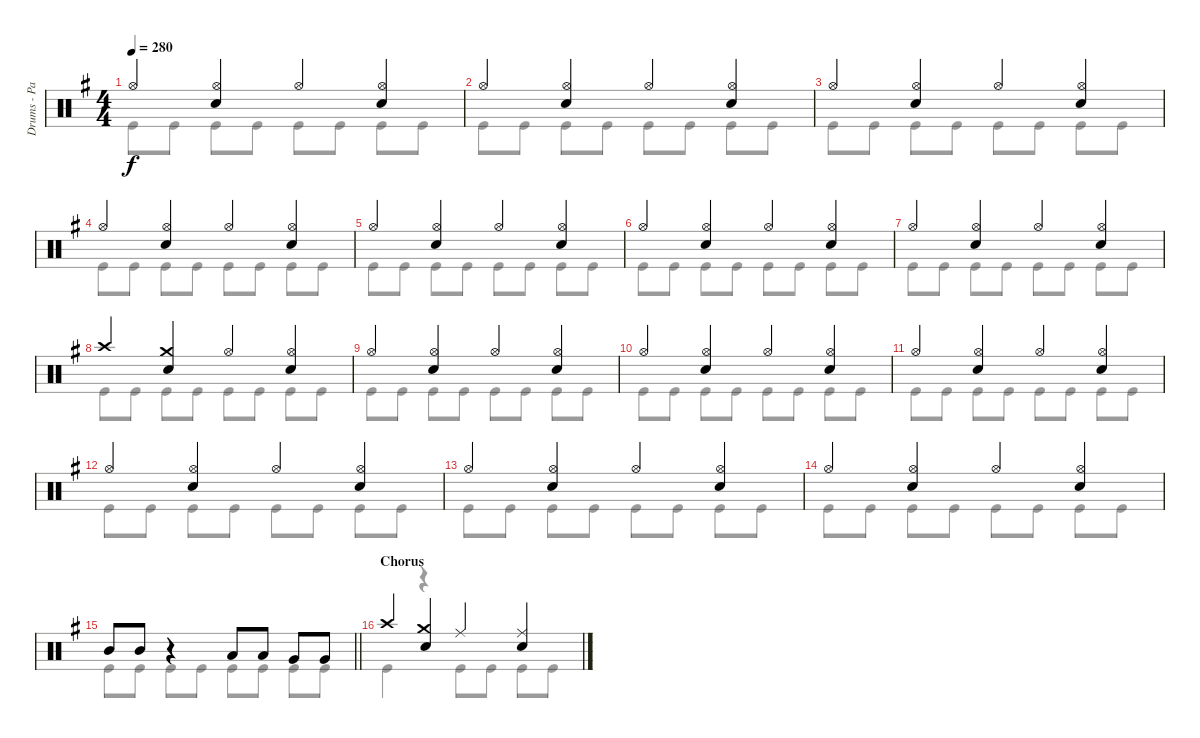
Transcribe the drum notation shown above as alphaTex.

\track ("Drums - Patrick Johansson" "Drums - Pa") {instrument percussion}
\staff {score}
\articulation defaults
\voice
\ts (4 4)
\tempo 280
\clef neutral
\ks eminor "Hi-Hat (open)".4{dy f}
("Hi-Hat (open)" "Snare (hit) 2").4 "Hi-Hat (open)".4 ("Hi-Hat (open)" "Snare (hit) 2").4 |
"Hi-Hat (open)".4 ("Hi-Hat (open)" "Snare (hit) 2").4 "Hi-Hat (open)".4 ("Hi-Hat (open)" "Snare (hit) 2").4 |
"Hi-Hat (open)".4 ("Hi-Hat (open)" "Snare (hit) 2").4 "Hi-Hat (open)".4 ("Hi-Hat (open)" "Snare (hit) 2").4 |
"Hi-Hat (open)".4 ("Hi-Hat (open)" "Snare (hit) 2").4 "Hi-Hat (open)".4 ("Hi-Hat (open)" "Snare (hit) 2").4 |
"Hi-Hat (open)".4 ("Hi-Hat (open)" "Snare (hit) 2").4 "Hi-Hat (open)".4 ("Hi-Hat (open)" "Snare (hit) 2").4 |
"Hi-Hat (open)".4 ("Hi-Hat (open)" "Snare (hit) 2").4 "Hi-Hat (open)".4 ("Hi-Hat (open)" "Snare (hit) 2").4 |
"Hi-Hat (open)".4 ("Hi-Hat (open)" "Snare (hit) 2").4 "Hi-Hat (open)".4 ("Hi-Hat (open)" "Snare (hit) 2").4 |
"Crash high (hit)".4 ("Crash medium (hit)" "Snare (hit) 2").4 "Hi-Hat (open)".4 ("Hi-Hat (open)" "Snare (hit) 2").4 |
"Hi-Hat (open)".4 ("Hi-Hat (open)" "Snare (hit) 2").4 "Hi-Hat (open)".4 ("Hi-Hat (open)" "Snare (hit) 2").4 |
"Hi-Hat (open)".4 ("Hi-Hat (open)" "Snare (hit) 2").4 "Hi-Hat (open)".4 ("Hi-Hat (open)" "Snare (hit) 2").4 |
"Hi-Hat (open)".4 ("Hi-Hat (open)" "Snare (hit) 2").4 "Hi-Hat (open)".4 ("Hi-Hat (open)" "Snare (hit) 2").4 |
"Hi-Hat (open)".4 ("Hi-Hat (open)" "Snare (hit) 2").4 "Hi-Hat (open)".4 ("Hi-Hat (open)" "Snare (hit) 2").4 |
"Hi-Hat (open)".4 ("Hi-Hat (open)" "Snare (hit) 2").4 "Hi-Hat (open)".4 ("Hi-Hat (open)" "Snare (hit) 2").4 |
"Hi-Hat (open)".4 ("Hi-Hat (open)" "Snare (hit) 2").4 "Hi-Hat (open)".4 ("Hi-Hat (open)" "Snare (hit) 2").4 |
\barLineRight lightlight "Mid Tom (hit)".8 "Mid Tom (hit)".8
r.4 "Low Tom (hit)".8 "Low Tom (hit)".8 "Very Low Tom (hit)".8 "Very Low Tom (hit)".8 |
\section ("" "Chorus")
"Crash high (hit)".4 ("Crash medium (hit)" "Snare (hit) 2").4 "Ride (middle)".4 ("Ride (middle)" "Snare (hit) 2").4
\voice
\clef neutral
\ottava regular
\simile none
\ks eminor "Kick (hit)".8{dy f} "Kick (hit)".8 "Kick (hit)".8 "Kick (hit)".8 "Kick (hit)".8 "Kick (hit)".8 "Kick (hit)".8 "Kick (hit)".8
|
"Kick (hit)".8 "Kick (hit)".8 "Kick (hit)".8 "Kick (hit)".8 "Kick (hit)".8 "Kick (hit)".8 "Kick (hit)".8 "Kick (hit)".8 |
"Kick (hit)".8 "Kick (hit)".8 "Kick (hit)".8 "Kick (hit)".8 "Kick (hit)".8 "Kick (hit)".8 "Kick (hit)".8 "Kick (hit)".8 |
"Kick (hit)".8 "Kick (hit)".8 "Kick (hit)".8 "Kick (hit)".8 "Kick (hit)".8 "Kick (hit)".8 "Kick (hit)".8 "Kick (hit)".8 |
"Kick (hit)".8 "Kick (hit)".8 "Kick (hit)".8 "Kick (hit)".8 "Kick (hit)".8 "Kick (hit)".8 "Kick (hit)".8 "Kick (hit)".8 |
"Kick (hit)".8 "Kick (hit)".8 "Kick (hit)".8 "Kick (hit)".8 "Kick (hit)".8 "Kick (hit)".8 "Kick (hit)".8 "Kick (hit)".8 |
"Kick (hit)".8 "Kick (hit)".8 "Kick (hit)".8 "Kick (hit)".8 "Kick (hit)".8 "Kick (hit)".8 "Kick (hit)".8 "Kick (hit)".8 |
"Kick (hit)".8 "Kick (hit)".8 "Kick (hit)".8 "Kick (hit)".8 "Kick (hit)".8 "Kick (hit)".8 "Kick (hit)".8 "Kick (hit)".8 |
"Kick (hit)".8 "Kick (hit)".8 "Kick (hit)".8 "Kick (hit)".8 "Kick (hit)".8 "Kick (hit)".8 "Kick (hit)".8 "Kick (hit)".8 |
"Kick (hit)".8 "Kick (hit)".8 "Kick (hit)".8 "Kick (hit)".8 "Kick (hit)".8 "Kick (hit)".8 "Kick (hit)".8 "Kick (hit)".8 |
"Kick (hit)".8 "Kick (hit)".8 "Kick (hit)".8 "Kick (hit)".8 "Kick (hit)".8 "Kick (hit)".8 "Kick (hit)".8 "Kick (hit)".8 |
"Kick (hit)".8 "Kick (hit)".8 "Kick (hit)".8 "Kick (hit)".8 "Kick (hit)".8 "Kick (hit)".8 "Kick (hit)".8 "Kick (hit)".8 |
"Kick (hit)".8 "Kick (hit)".8 "Kick (hit)".8 "Kick (hit)".8 "Kick (hit)".8 "Kick (hit)".8 "Kick (hit)".8 "Kick (hit)".8 |
"Kick (hit)".8 "Kick (hit)".8 "Kick (hit)".8 "Kick (hit)".8 "Kick (hit)".8 "Kick (hit)".8 "Kick (hit)".8 "Kick (hit)".8 |
\barLineRight lightlight "Kick (hit)".8 "Kick (hit)".8 "Kick (hit)".8 "Kick (hit)".8 "Kick (hit)".8 "Kick (hit)".8 "Kick (hit)".8 "Kick (hit)".8
|
"Kick (hit)".4 r.4 "Kick (hit)".8 "Kick (hit)".8 "Kick (hit)".8 "Kick (hit)".8
